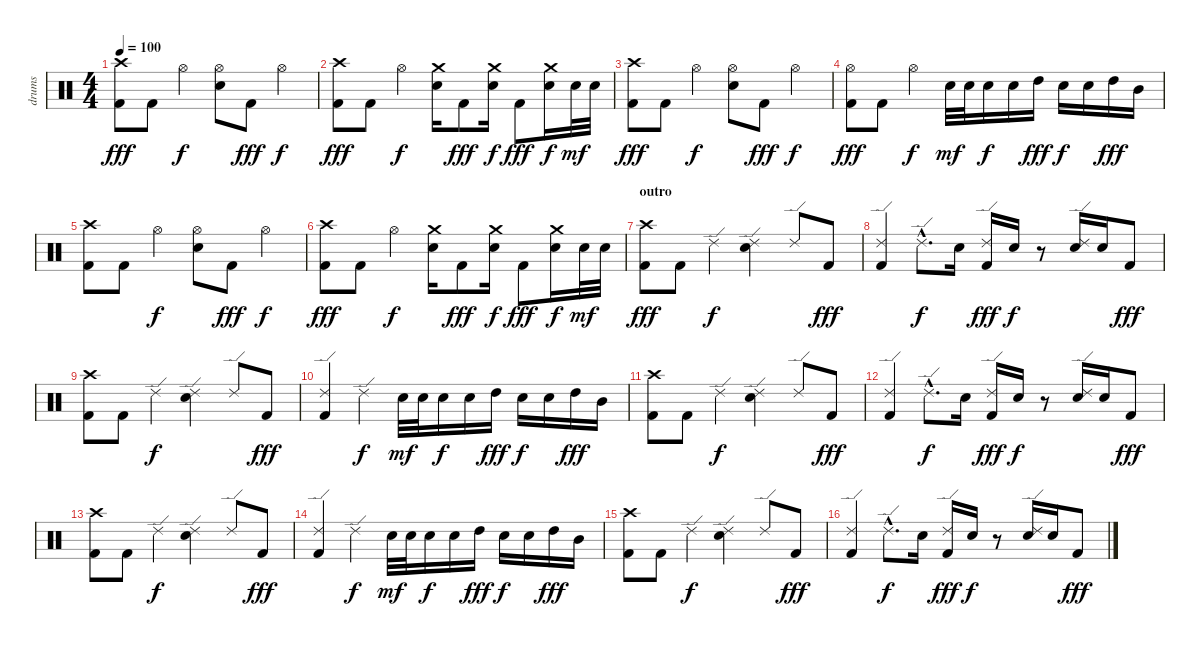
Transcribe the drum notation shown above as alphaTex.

\track ("drums" "drums") {instrument percussion}
\staff {score}
\articulation defaults
\ts (4 4)
\tempo 100
\clef neutral
\ks c
("Crash high (hit)" "Kick (hit) 2").8{dy fff} "Kick (hit) 2".8 "Hi-Hat (open)".4{dy f} ("Hi-Hat (open)" "Snare (hit) 2").8 "Kick (hit) 2".8{dy fff} "Hi-Hat (open)".4{dy f} |
("Crash high (hit)" "Kick (hit) 2").8{dy fff} "Kick (hit) 2".8 "Hi-Hat (open)".4{dy f} ("Crash medium (hit)" "Snare (hit) 2").16 "Kick (hit) 2".8{dy fff} ("Crash medium (hit)" "Snare (hit) 2").16{dy f} "Kick (hit) 2".8{dy fff} ("Crash medium (hit)" "Snare (hit) 2").16{dy f} "Snare (hit) 2".32{dy mf} "Snare (hit) 2".32 |
("Crash high (hit)" "Kick (hit) 2").8{dy fff} "Kick (hit) 2".8 "Hi-Hat (open)".4{dy f} ("Hi-Hat (open)" "Snare (hit) 2").8 "Kick (hit) 2".8{dy fff} "Hi-Hat (open)".4{dy f} |
("Hi-Hat (open)" "Kick (hit) 2").8{dy fff} "Kick (hit) 2".8 "Hi-Hat (open)".4{dy f} "Snare (hit) 2".32{dy mf} "Snare (hit) 2".32 "Snare (hit) 2".16{dy f} "Snare (hit) 2".16 "High Tom (hit)".16{dy fff} "Snare (hit) 2".16{dy f} "Snare (hit) 2".16 "High Tom (hit)".16{dy fff} "Mid Tom (hit)".16 |
("Crash high (hit)" "Kick (hit) 2").8 "Kick (hit) 2".8 "Hi-Hat (open)".4{dy f} ("Hi-Hat (open)" "Snare (hit) 2").8 "Kick (hit) 2".8{dy fff} "Hi-Hat (open)".4{dy f} |
("Crash high (hit)" "Kick (hit) 2").8{dy fff} "Kick (hit) 2".8 "Hi-Hat (open)".4{dy f} ("Crash medium (hit)" "Snare (hit) 2").16 "Kick (hit) 2".8{dy fff} ("Crash medium (hit)" "Snare (hit) 2").16{dy f} "Kick (hit) 2".8{dy fff} ("Crash medium (hit)" "Snare (hit) 2").16{dy f} "Snare (hit) 2".32{dy mf} "Snare (hit) 2".32 |
\section ("" "outro ")
("Crash high (hit)" "Kick (hit) 2").8{dy fff} "Kick (hit) 2".8 "Ride (edge) 2".4{dy f} ("Ride (edge) 2" "Snare (hit) 2").4 "Ride (edge) 2".8 "Kick (hit) 2".8{dy fff} |
("Ride (edge) 2" "Kick (hit) 2").4 "Ride (edge) 2"{hac}.8{d dy f} "Snare (hit) 2".16 ("Ride (edge) 2" "Kick (hit) 2").16{dy fff} "Snare (hit) 2".16{dy f} r.8 ("Ride (edge) 2" "Snare (hit) 2").16 "Snare (hit) 2".16 "Kick (hit) 2".8{dy fff} |
("Crash high (hit)" "Kick (hit) 2").8 "Kick (hit) 2".8 "Ride (edge) 2".4{dy f} ("Ride (edge) 2" "Snare (hit) 2").4 "Ride (edge) 2".8 "Kick (hit) 2".8{dy fff} |
("Ride (edge) 2" "Kick (hit) 2").4 "Ride (edge) 2".4{dy f} "Snare (hit) 2".32{dy mf} "Snare (hit) 2".32 "Snare (hit) 2".16{dy f} "Snare (hit) 2".16 "High Tom (hit)".16{dy fff} "Snare (hit) 2".16{dy f} "Snare (hit) 2".16 "High Tom (hit)".16{dy fff} "Mid Tom (hit)".16 |
("Crash high (hit)" "Kick (hit) 2").8 "Kick (hit) 2".8 "Ride (edge) 2".4{dy f} ("Ride (edge) 2" "Snare (hit) 2").4 "Ride (edge) 2".8 "Kick (hit) 2".8{dy fff} |
("Ride (edge) 2" "Kick (hit) 2").4 "Ride (edge) 2"{hac}.8{d dy f} "Snare (hit) 2".16 ("Ride (edge) 2" "Kick (hit) 2").16{dy fff} "Snare (hit) 2".16{dy f} r.8 ("Ride (edge) 2" "Snare (hit) 2").16 "Snare (hit) 2".16 "Kick (hit) 2".8{dy fff} |
("Crash high (hit)" "Kick (hit) 2").8 "Kick (hit) 2".8 "Ride (edge) 2".4{dy f} ("Ride (edge) 2" "Snare (hit) 2").4 "Ride (edge) 2".8 "Kick (hit) 2".8{dy fff} |
("Ride (edge) 2" "Kick (hit) 2").4 "Ride (edge) 2".4{dy f} "Snare (hit) 2".32{dy mf} "Snare (hit) 2".32 "Snare (hit) 2".16{dy f} "Snare (hit) 2".16 "High Tom (hit)".16{dy fff} "Snare (hit) 2".16{dy f} "Snare (hit) 2".16 "High Tom (hit)".16{dy fff} "Mid Tom (hit)".16 |
("Crash high (hit)" "Kick (hit) 2").8 "Kick (hit) 2".8 "Ride (edge) 2".4{dy f} ("Ride (edge) 2" "Snare (hit) 2").4 "Ride (edge) 2".8 "Kick (hit) 2".8{dy fff} |
("Ride (edge) 2" "Kick (hit) 2").4 "Ride (edge) 2"{hac}.8{d dy f} "Snare (hit) 2".16 ("Ride (edge) 2" "Kick (hit) 2").16{dy fff} "Snare (hit) 2".16{dy f} r.8 ("Ride (edge) 2" "Snare (hit) 2").16 "Snare (hit) 2".16 "Kick (hit) 2".8{dy fff}
